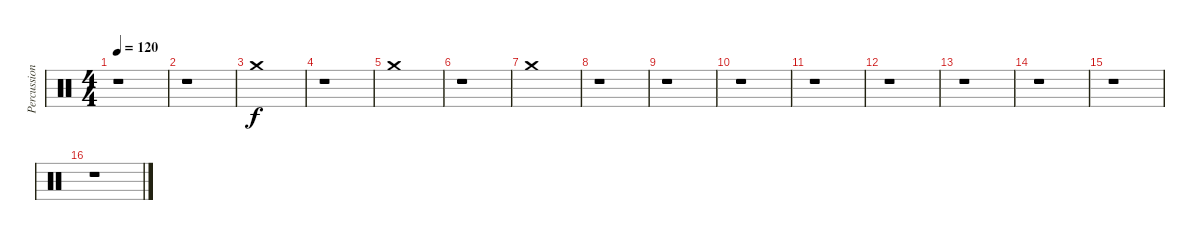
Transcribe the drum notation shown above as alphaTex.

\track ("Percussion" "Percussion") {instrument percussion}
\staff {score}
\articulation defaults
\ts (4 4)
\tempo 120
\clef neutral
\ks c
r.1{dy f} |
r.1 |
"Crash medium (hit)".1 |
r.1 |
"Crash medium (hit)".1 |
r.1 |
"Crash medium (hit)".1 |
r.1 |
r.1 |
r.1 |
r.1 |
r.1 |
r.1 |
r.1 |
r.1 |
r.1
